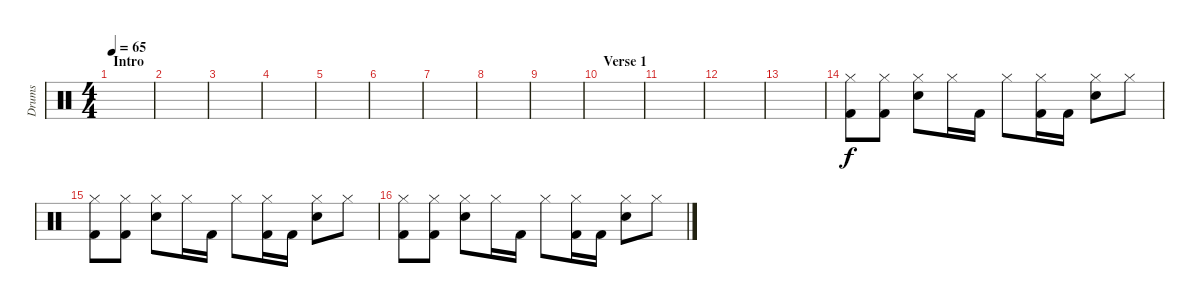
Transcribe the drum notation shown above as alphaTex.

\track ("Drums" "Drums") {instrument percussion}
\staff {score}
\articulation defaults
\ts (4 4)
\section ("" "Intro")
\tempo 65
\clef neutral
\ks c
|
|
|
|
|
|
|
|
|
\section ("" "Verse 1")
|
|
|
|
("Hi-Hat (closed)" "Kick (hit) 2").8 ("Hi-Hat (closed)" "Kick (hit) 2").8 ("Hi-Hat (closed)" "Snare (hit) 2").8 "Hi-Hat (closed)".16 "Kick (hit) 2".16 "Hi-Hat (closed)".8 ("Hi-Hat (closed)" "Kick (hit) 2").16 "Kick (hit) 2".16 ("Hi-Hat (closed)" "Snare (hit) 2").8 "Hi-Hat (closed)".8 |
("Hi-Hat (closed)" "Kick (hit) 2").8 ("Hi-Hat (closed)" "Kick (hit) 2").8 ("Hi-Hat (closed)" "Snare (hit) 2").8 "Hi-Hat (closed)".16 "Kick (hit) 2".16 "Hi-Hat (closed)".8 ("Hi-Hat (closed)" "Kick (hit) 2").16 "Kick (hit) 2".16 ("Hi-Hat (closed)" "Snare (hit) 2").8 "Hi-Hat (closed)".8 |
("Hi-Hat (closed)" "Kick (hit) 2").8 ("Hi-Hat (closed)" "Kick (hit) 2").8 ("Hi-Hat (closed)" "Snare (hit) 2").8 "Hi-Hat (closed)".16 "Kick (hit) 2".16 "Hi-Hat (closed)".8 ("Hi-Hat (closed)" "Kick (hit) 2").16 "Kick (hit) 2".16 ("Hi-Hat (closed)" "Snare (hit) 2").8 "Hi-Hat (closed)".8
